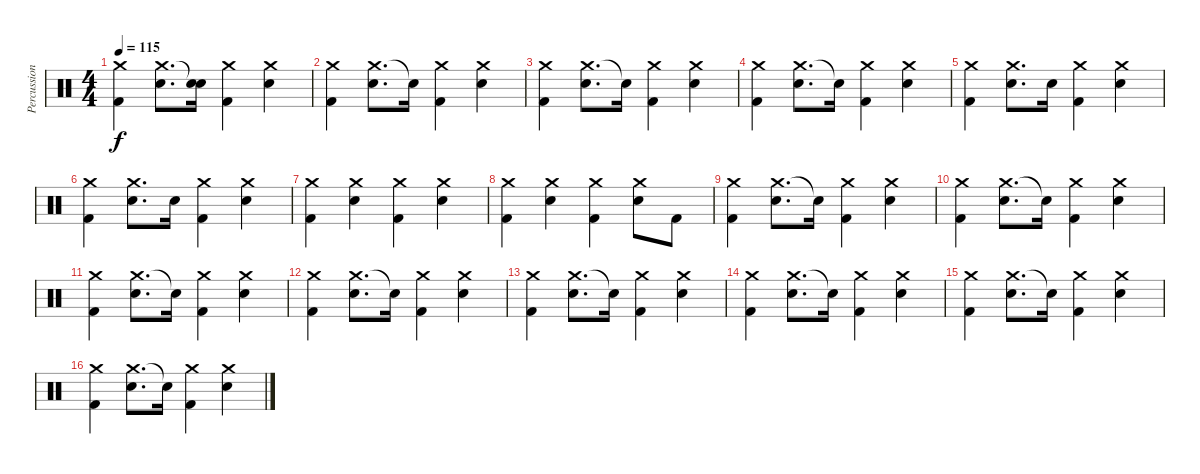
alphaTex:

\track ("Percussions" "Percussion") {instrument percussion}
\staff {score}
\articulation defaults
\ts (4 4)
\tempo 115
\clef neutral
\ks c
("Crash medium (hit)" "Kick (hit) 2").4{dy f} ("Crash medium (hit)" "Electric Snare (hit)").8{d} ("Snare (hit)"{t} "Electric Snare (hit)").16 ("Crash medium (hit)" "Kick (hit) 2").4 ("Crash medium (hit)" "Electric Snare (hit)").4 |
("Crash medium (hit)" "Kick (hit) 2").4 ("Crash medium (hit)" "Electric Snare (hit)").8{d} "Snare (hit)"{t}.16 ("Crash medium (hit)" "Kick (hit) 2").4 ("Crash medium (hit)" "Electric Snare (hit)").4 |
("Crash medium (hit)" "Kick (hit) 2").4 ("Crash medium (hit)" "Electric Snare (hit)").8{d} "Snare (hit)"{t}.16 ("Crash medium (hit)" "Kick (hit) 2").4 ("Crash medium (hit)" "Electric Snare (hit)").4 |
("Crash medium (hit)" "Kick (hit) 2").4 ("Crash medium (hit)" "Electric Snare (hit)").8{d} "Snare (hit)"{t}.16 ("Crash medium (hit)" "Kick (hit) 2").4 ("Crash medium (hit)" "Electric Snare (hit)").4 |
("Crash medium (hit)" "Kick (hit) 2").4 ("Crash medium (hit)" "Electric Snare (hit)").8{d} "Electric Snare (hit)".16 ("Crash medium (hit)" "Kick (hit) 2").4 ("Crash medium (hit)" "Electric Snare (hit)").4 |
("Crash medium (hit)" "Kick (hit) 2").4 ("Crash medium (hit)" "Electric Snare (hit)").8{d} "Electric Snare (hit)".16 ("Crash medium (hit)" "Kick (hit) 2").4 ("Crash medium (hit)" "Electric Snare (hit)").4 |
("Crash medium (hit)" "Kick (hit) 2").4 ("Crash medium (hit)" "Electric Snare (hit)").4 ("Crash medium (hit)" "Kick (hit) 2").4 ("Crash medium (hit)" "Electric Snare (hit)").4 |
("Crash medium (hit)" "Kick (hit) 2").4 ("Crash medium (hit)" "Electric Snare (hit)").4 ("Crash medium (hit)" "Kick (hit) 2").4 ("Crash medium (hit)" "Electric Snare (hit)").8 "Kick (hit) 2".8 |
("Crash medium (hit)" "Kick (hit) 2").4 ("Crash medium (hit)" "Electric Snare (hit)").8{d} "Snare (hit)"{t}.16 ("Crash medium (hit)" "Kick (hit) 2").4 ("Crash medium (hit)" "Electric Snare (hit)").4 |
("Crash medium (hit)" "Kick (hit) 2").4 ("Crash medium (hit)" "Electric Snare (hit)").8{d} "Snare (hit)"{t}.16 ("Crash medium (hit)" "Kick (hit) 2").4 ("Crash medium (hit)" "Electric Snare (hit)").4 |
("Crash medium (hit)" "Kick (hit) 2").4 ("Crash medium (hit)" "Electric Snare (hit)").8{d} "Snare (hit)"{t}.16 ("Crash medium (hit)" "Kick (hit) 2").4 ("Crash medium (hit)" "Electric Snare (hit)").4 |
("Crash medium (hit)" "Kick (hit) 2").4 ("Crash medium (hit)" "Electric Snare (hit)").8{d} "Snare (hit)"{t}.16 ("Crash medium (hit)" "Kick (hit) 2").4 ("Crash medium (hit)" "Electric Snare (hit)").4 |
("Crash medium (hit)" "Kick (hit) 2").4 ("Crash medium (hit)" "Electric Snare (hit)").8{d} "Snare (hit)"{t}.16 ("Crash medium (hit)" "Kick (hit) 2").4 ("Crash medium (hit)" "Electric Snare (hit)").4 |
("Crash medium (hit)" "Kick (hit) 2").4 ("Crash medium (hit)" "Electric Snare (hit)").8{d} "Snare (hit)"{t}.16 ("Crash medium (hit)" "Kick (hit) 2").4 ("Crash medium (hit)" "Electric Snare (hit)").4 |
("Crash medium (hit)" "Kick (hit) 2").4 ("Crash medium (hit)" "Electric Snare (hit)").8{d} "Snare (hit)"{t}.16 ("Crash medium (hit)" "Kick (hit) 2").4 ("Crash medium (hit)" "Electric Snare (hit)").4 |
("Crash medium (hit)" "Kick (hit) 2").4 ("Crash medium (hit)" "Electric Snare (hit)").8{d} "Snare (hit)"{t}.16 ("Crash medium (hit)" "Kick (hit) 2").4 ("Crash medium (hit)" "Electric Snare (hit)").4
